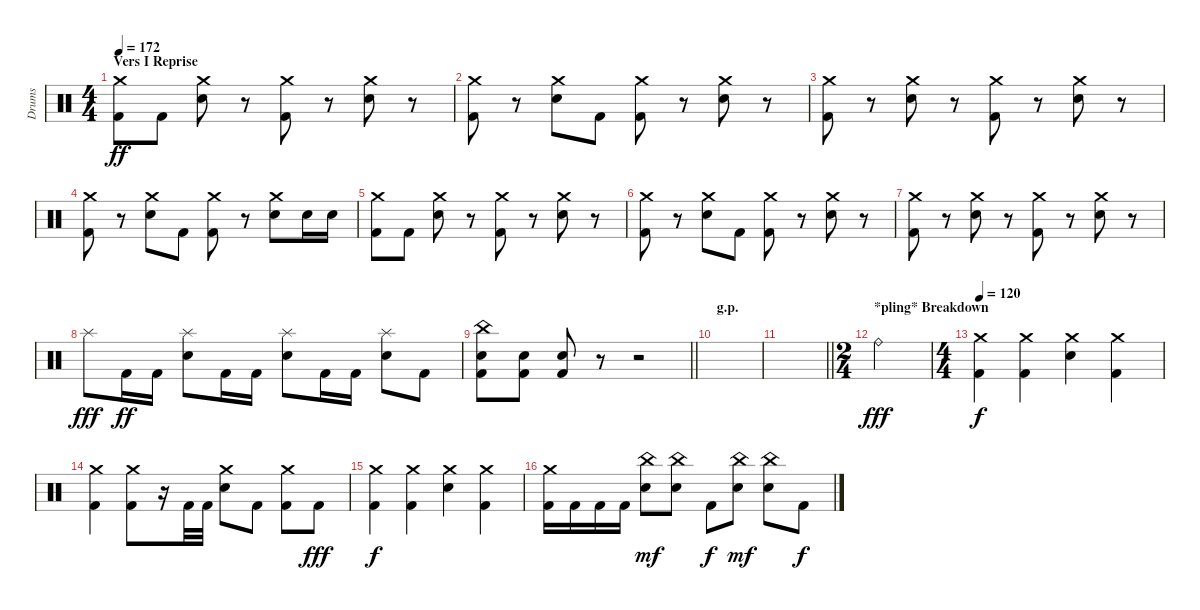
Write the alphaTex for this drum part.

\track ("Drums" "Drums") {instrument percussion}
\staff {score}
\articulation defaults
\ts (4 4)
\section ("" "Vers I Reprise")
\tempo 172
\clef neutral
\ks c
("Crash medium (hit)" "Kick (hit) 2").8{dy ff} "Kick (hit) 2".8 ("Crash medium (hit)" "Electric Snare (hit)").8 r.8 ("Crash medium (hit)" "Kick (hit) 2").8 r.8 ("Crash medium (hit)" "Electric Snare (hit)").8 r.8 |
("Crash medium (hit)" "Kick (hit) 2").8 r.8 ("Crash medium (hit)" "Electric Snare (hit)").8 "Kick (hit) 2".8 ("Crash medium (hit)" "Kick (hit) 2").8 r.8 ("Crash medium (hit)" "Electric Snare (hit)").8 r.8 |
("Crash medium (hit)" "Kick (hit) 2").8 r.8 ("Crash medium (hit)" "Electric Snare (hit)").8 r.8 ("Crash medium (hit)" "Kick (hit) 2").8 r.8 ("Crash medium (hit)" "Electric Snare (hit)").8 r.8 |
("Crash medium (hit)" "Kick (hit) 2").8 r.8 ("Crash medium (hit)" "Electric Snare (hit)").8 "Kick (hit) 2".8 ("Crash medium (hit)" "Kick (hit) 2").8 r.8 ("Crash medium (hit)" "Electric Snare (hit)").8 "Electric Snare (hit)".16 "Electric Snare (hit)".16 |
("Crash medium (hit)" "Kick (hit) 2").8 "Kick (hit) 2".8 ("Crash medium (hit)" "Electric Snare (hit)").8 r.8 ("Crash medium (hit)" "Kick (hit) 2").8 r.8 ("Crash medium (hit)" "Electric Snare (hit)").8 r.8 |
("Crash medium (hit)" "Kick (hit) 2").8 r.8 ("Crash medium (hit)" "Electric Snare (hit)").8 "Kick (hit) 2".8 ("Crash medium (hit)" "Kick (hit) 2").8 r.8 ("Crash medium (hit)" "Electric Snare (hit)").8 r.8 |
("Crash medium (hit)" "Kick (hit) 2").8 r.8 ("Crash medium (hit)" "Electric Snare (hit)").8 r.8 ("Crash medium (hit)" "Kick (hit) 2").8 r.8 ("Crash medium (hit)" "Electric Snare (hit)").8 r.8 |
"Splash (hit)".8{dy fff} "Kick (hit) 2".16{dy ff} "Kick (hit) 2".16 ("Splash (hit)" "Electric Snare (hit)").8 "Kick (hit) 2".16 "Kick (hit) 2".16 ("Splash (hit)" "Electric Snare (hit)").8 "Kick (hit) 2".16 "Kick (hit) 2".16 ("Splash (hit)" "Electric Snare (hit)").8 "Kick (hit) 2".8 |
\barLineRight lightlight
("China (hit)" "Electric Snare (hit)" "Kick (hit) 2").8 ("Electric Snare (hit)" "Kick (hit) 2").8 ("Electric Snare (hit)" "Kick (hit) 2").8 r.8 r.2 |
\section ("" "g.p.")
|
\barLineRight lightlight
|
\ts (2 4)
\section ("" "*pling* Breakdown")
"Ride (bell)".2{dy fff} |
\ts (4 4)
\tempo 120
("Crash medium (hit)" "Kick (hit) 2").4{dy f} ("Crash medium (hit)" "Kick (hit) 2").4 ("Crash medium (hit)" "Electric Snare (hit)").4 ("Crash medium (hit)" "Kick (hit) 2").4 |
("Crash medium (hit)" "Kick (hit) 2").4 ("Crash medium (hit)" "Kick (hit) 2").8 r.16 "Kick (hit) 2".32 "Kick (hit) 2".32 ("Crash medium (hit)" "Electric Snare (hit)").8 "Kick (hit) 2".8 ("Crash medium (hit)" "Kick (hit) 2").8 "Kick (hit) 2".8{dy fff} |
("Crash medium (hit)" "Kick (hit) 2").4{dy f} ("Crash medium (hit)" "Kick (hit) 2").4 ("Crash medium (hit)" "Electric Snare (hit)").4 ("Crash medium (hit)" "Kick (hit) 2").4 |
("Crash medium (hit)" "Kick (hit) 2").16 "Kick (hit) 2".16 "Kick (hit) 2".16 "Kick (hit) 2".16 ("China (hit)" "Electric Snare (hit)").8{dy mf} ("China (hit)" "Electric Snare (hit)").8 "Kick (hit) 2".8{dy f} ("China (hit)" "Electric Snare (hit)").8{dy mf} ("China (hit)" "Electric Snare (hit)").8 "Kick (hit) 2".8{dy f}
